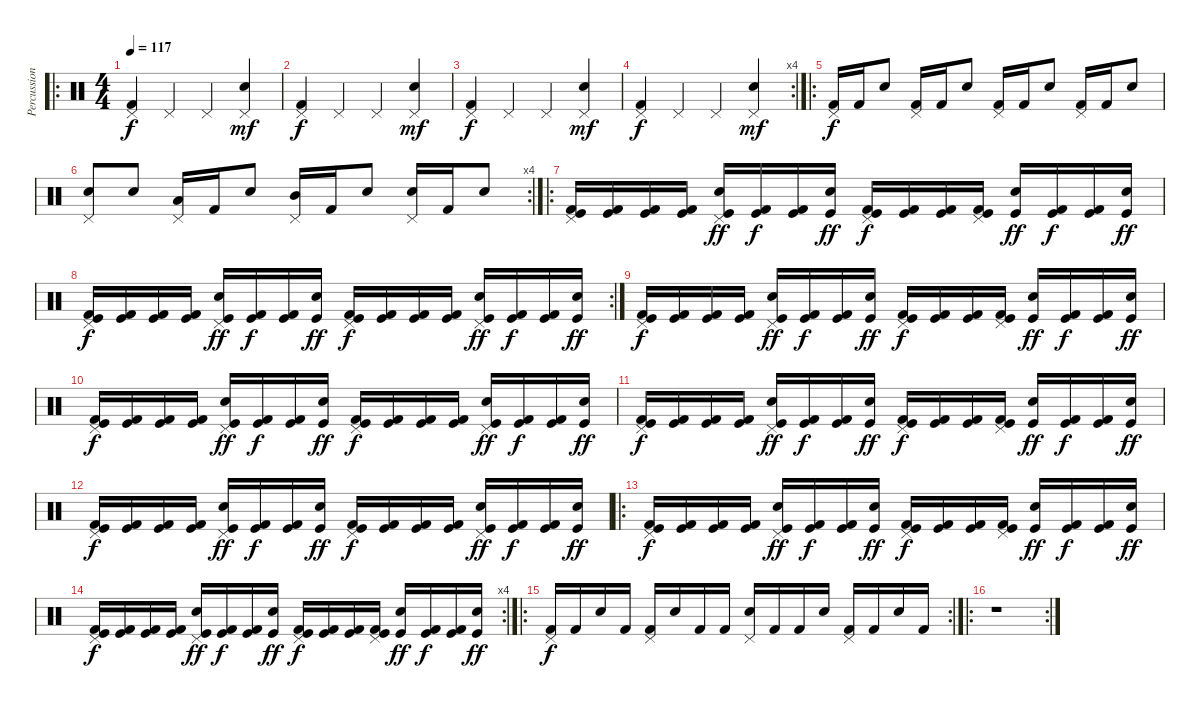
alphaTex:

\track ("Percussions" "Percussion") {instrument percussion}
\staff {score}
\articulation defaults
\ro
\ts (4 4)
\tempo 117
\clef neutral
\ks c
("Pedal Hi-Hat (hit)" "Kick (hit) 2").4{dy f} "Pedal Hi-Hat (hit)".4 "Pedal Hi-Hat (hit)".4 ("Pedal Hi-Hat (hit)" "Snare (hit) 2").4{dy mf} |
("Pedal Hi-Hat (hit)" "Kick (hit) 2").4{dy f} "Pedal Hi-Hat (hit)".4 "Pedal Hi-Hat (hit)".4 ("Pedal Hi-Hat (hit)" "Snare (hit) 2").4{dy mf} |
("Pedal Hi-Hat (hit)" "Kick (hit) 2").4{dy f} "Pedal Hi-Hat (hit)".4 "Pedal Hi-Hat (hit)".4 ("Pedal Hi-Hat (hit)" "Snare (hit) 2").4{dy mf} |
\rc 4
("Pedal Hi-Hat (hit)" "Kick (hit) 2").4{dy f} "Pedal Hi-Hat (hit)".4 "Pedal Hi-Hat (hit)".4 ("Pedal Hi-Hat (hit)" "Snare (hit) 2").4{dy mf} |
\ro
("Pedal Hi-Hat (hit)" "Kick (hit) 2").16{dy f} "Kick (hit) 2".16 "Snare (hit) 2".8 ("Pedal Hi-Hat (hit)" "Kick (hit) 2").16 "Kick (hit) 2".16 "Snare (hit) 2".8 ("Pedal Hi-Hat (hit)" "Kick (hit) 2").16 "Kick (hit) 2".16 "Snare (hit) 2".8 ("Pedal Hi-Hat (hit)" "Kick (hit) 2").16 "Kick (hit) 2".16 "Snare (hit) 2".8 |
\rc 4
("Pedal Hi-Hat (hit)" "Snare (hit) 2").8 "Snare (hit) 2".8 ("Pedal Hi-Hat (hit)" "Low Tom (hit)").16 "Kick (hit) 2".16 "Snare (hit) 2".8 ("Pedal Hi-Hat (hit)" "Mid Tom (hit)").16 "Kick (hit) 2".16 "Snare (hit) 2".8 ("Pedal Hi-Hat (hit)" "Electric Snare (hit)").16 "Kick (hit) 2".16 "Snare (hit) 2".8 |
\ro
("Pedal Hi-Hat (hit)" "Kick (hit)" "Kick (hit) 2").16 ("Kick (hit)" "Kick (hit) 2").16 ("Kick (hit)" "Kick (hit) 2").16 ("Kick (hit)" "Kick (hit) 2").16 ("Pedal Hi-Hat (hit)" "Kick (hit)" "Snare (hit) 2").16{dy ff} ("Kick (hit)" "Kick (hit) 2").16{dy f} ("Kick (hit)" "Kick (hit) 2").16 ("Kick (hit)" "Snare (hit) 2").16{dy ff} ("Pedal Hi-Hat (hit)" "Kick (hit)" "Kick (hit) 2").16{dy f} ("Kick (hit)" "Kick (hit) 2").16 ("Kick (hit)" "Kick (hit) 2").16 ("Pedal Hi-Hat (hit)" "Kick (hit)" "Kick (hit) 2").16 ("Kick (hit)" "Snare (hit) 2").16{dy ff} ("Kick (hit)" "Kick (hit) 2").16{dy f} ("Kick (hit)" "Kick (hit) 2").16 ("Kick (hit)" "Snare (hit) 2").16{dy ff} |
\rc 2
("Pedal Hi-Hat (hit)" "Kick (hit)" "Kick (hit) 2").16{dy f} ("Kick (hit)" "Kick (hit) 2").16 ("Kick (hit)" "Kick (hit) 2").16 ("Kick (hit)" "Kick (hit) 2").16 ("Pedal Hi-Hat (hit)" "Kick (hit)" "Snare (hit) 2").16{dy ff} ("Kick (hit)" "Kick (hit) 2").16{dy f} ("Kick (hit)" "Kick (hit) 2").16 ("Kick (hit)" "Snare (hit) 2").16{dy ff} ("Pedal Hi-Hat (hit)" "Kick (hit)" "Kick (hit) 2").16{dy f} ("Kick (hit)" "Kick (hit) 2").16 ("Kick (hit)" "Kick (hit) 2").16 ("Kick (hit)" "Kick (hit) 2").16 ("Pedal Hi-Hat (hit)" "Kick (hit)" "Snare (hit) 2").16{dy ff} ("Kick (hit)" "Kick (hit) 2").16{dy f} ("Kick (hit)" "Kick (hit) 2").16 ("Kick (hit)" "Snare (hit) 2").16{dy ff} |
("Pedal Hi-Hat (hit)" "Kick (hit)" "Kick (hit) 2").16{dy f} ("Kick (hit)" "Kick (hit) 2").16 ("Kick (hit)" "Kick (hit) 2").16 ("Kick (hit)" "Kick (hit) 2").16 ("Pedal Hi-Hat (hit)" "Kick (hit)" "Snare (hit) 2").16{dy ff} ("Kick (hit)" "Kick (hit) 2").16{dy f} ("Kick (hit)" "Kick (hit) 2").16 ("Kick (hit)" "Snare (hit) 2").16{dy ff} ("Pedal Hi-Hat (hit)" "Kick (hit)" "Kick (hit) 2").16{dy f} ("Kick (hit)" "Kick (hit) 2").16 ("Kick (hit)" "Kick (hit) 2").16 ("Pedal Hi-Hat (hit)" "Kick (hit)" "Kick (hit) 2").16 ("Kick (hit)" "Snare (hit) 2").16{dy ff} ("Kick (hit)" "Kick (hit) 2").16{dy f} ("Kick (hit)" "Kick (hit) 2").16 ("Kick (hit)" "Snare (hit) 2").16{dy ff} |
("Pedal Hi-Hat (hit)" "Kick (hit)" "Kick (hit) 2").16{dy f} ("Kick (hit)" "Kick (hit) 2").16 ("Kick (hit)" "Kick (hit) 2").16 ("Kick (hit)" "Kick (hit) 2").16 ("Pedal Hi-Hat (hit)" "Kick (hit)" "Snare (hit) 2").16{dy ff} ("Kick (hit)" "Kick (hit) 2").16{dy f} ("Kick (hit)" "Kick (hit) 2").16 ("Kick (hit)" "Snare (hit) 2").16{dy ff} ("Pedal Hi-Hat (hit)" "Kick (hit)" "Kick (hit) 2").16{dy f} ("Kick (hit)" "Kick (hit) 2").16 ("Kick (hit)" "Kick (hit) 2").16 ("Kick (hit)" "Kick (hit) 2").16 ("Pedal Hi-Hat (hit)" "Kick (hit)" "Snare (hit) 2").16{dy ff} ("Kick (hit)" "Kick (hit) 2").16{dy f} ("Kick (hit)" "Kick (hit) 2").16 ("Kick (hit)" "Snare (hit) 2").16{dy ff} |
("Pedal Hi-Hat (hit)" "Kick (hit)" "Kick (hit) 2").16{dy f} ("Kick (hit)" "Kick (hit) 2").16 ("Kick (hit)" "Kick (hit) 2").16 ("Kick (hit)" "Kick (hit) 2").16 ("Pedal Hi-Hat (hit)" "Kick (hit)" "Snare (hit) 2").16{dy ff} ("Kick (hit)" "Kick (hit) 2").16{dy f} ("Kick (hit)" "Kick (hit) 2").16 ("Kick (hit)" "Snare (hit) 2").16{dy ff} ("Pedal Hi-Hat (hit)" "Kick (hit)" "Kick (hit) 2").16{dy f} ("Kick (hit)" "Kick (hit) 2").16 ("Kick (hit)" "Kick (hit) 2").16 ("Pedal Hi-Hat (hit)" "Kick (hit)" "Kick (hit) 2").16 ("Kick (hit)" "Snare (hit) 2").16{dy ff} ("Kick (hit)" "Kick (hit) 2").16{dy f} ("Kick (hit)" "Kick (hit) 2").16 ("Kick (hit)" "Snare (hit) 2").16{dy ff} |
("Pedal Hi-Hat (hit)" "Kick (hit)" "Kick (hit) 2").16{dy f} ("Kick (hit)" "Kick (hit) 2").16 ("Kick (hit)" "Kick (hit) 2").16 ("Kick (hit)" "Kick (hit) 2").16 ("Pedal Hi-Hat (hit)" "Kick (hit)" "Snare (hit) 2").16{dy ff} ("Kick (hit)" "Kick (hit) 2").16{dy f} ("Kick (hit)" "Kick (hit) 2").16 ("Kick (hit)" "Snare (hit) 2").16{dy ff} ("Pedal Hi-Hat (hit)" "Kick (hit)" "Kick (hit) 2").16{dy f} ("Kick (hit)" "Kick (hit) 2").16 ("Kick (hit)" "Kick (hit) 2").16 ("Kick (hit)" "Kick (hit) 2").16 ("Pedal Hi-Hat (hit)" "Kick (hit)" "Snare (hit) 2").16{dy ff} ("Kick (hit)" "Kick (hit) 2").16{dy f} ("Kick (hit)" "Kick (hit) 2").16 ("Kick (hit)" "Snare (hit) 2").16{dy ff} |
\ro
("Pedal Hi-Hat (hit)" "Kick (hit)" "Kick (hit) 2").16{dy f} ("Kick (hit)" "Kick (hit) 2").16 ("Kick (hit)" "Kick (hit) 2").16 ("Kick (hit)" "Kick (hit) 2").16 ("Pedal Hi-Hat (hit)" "Kick (hit)" "Snare (hit) 2").16{dy ff} ("Kick (hit)" "Kick (hit) 2").16{dy f} ("Kick (hit)" "Kick (hit) 2").16 ("Kick (hit)" "Snare (hit) 2").16{dy ff} ("Pedal Hi-Hat (hit)" "Kick (hit)" "Kick (hit) 2").16{dy f} ("Kick (hit)" "Kick (hit) 2").16 ("Kick (hit)" "Kick (hit) 2").16 ("Pedal Hi-Hat (hit)" "Kick (hit)" "Kick (hit) 2").16 ("Kick (hit)" "Snare (hit) 2").16{dy ff} ("Kick (hit)" "Kick (hit) 2").16{dy f} ("Kick (hit)" "Kick (hit) 2").16 ("Kick (hit)" "Snare (hit) 2").16{dy ff} |
\rc 4
("Pedal Hi-Hat (hit)" "Kick (hit)" "Kick (hit) 2").16{dy f} ("Kick (hit)" "Kick (hit) 2").16 ("Kick (hit)" "Kick (hit) 2").16 ("Kick (hit)" "Kick (hit) 2").16 ("Pedal Hi-Hat (hit)" "Kick (hit)" "Snare (hit) 2").16{dy ff} ("Kick (hit)" "Kick (hit) 2").16{dy f} ("Kick (hit)" "Kick (hit) 2").16 ("Kick (hit)" "Snare (hit) 2").16{dy ff} ("Pedal Hi-Hat (hit)" "Kick (hit)" "Kick (hit) 2").16{dy f} ("Kick (hit)" "Kick (hit) 2").16 ("Kick (hit)" "Kick (hit) 2").16 ("Pedal Hi-Hat (hit)" "Kick (hit)" "Kick (hit) 2").16 ("Kick (hit)" "Snare (hit) 2").16{dy ff} ("Kick (hit)" "Kick (hit) 2").16{dy f} ("Kick (hit)" "Kick (hit) 2").16 ("Kick (hit)" "Snare (hit) 2").16{dy ff} |
\ro
\rc 2
("Pedal Hi-Hat (hit)" "Kick (hit) 2").16{dy f} "Kick (hit) 2".16 "Snare (hit) 2".16 "Kick (hit) 2".16 ("Pedal Hi-Hat (hit)" "Kick (hit) 2").16 "Snare (hit) 2".16 "Kick (hit) 2".16 "Kick (hit) 2".16 ("Pedal Hi-Hat (hit)" "Snare (hit) 2").16 "Kick (hit) 2".16 "Kick (hit) 2".16 "Snare (hit) 2".16 ("Pedal Hi-Hat (hit)" "Kick (hit) 2").16 "Kick (hit) 2".16 "Snare (hit) 2".16 "Kick (hit) 2".16 |
\ro
\rc 2
r.1
